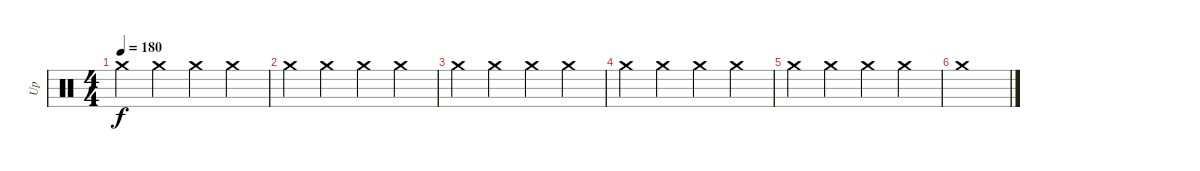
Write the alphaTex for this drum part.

\track ("Up" "Up") {instrument percussion}
\staff {score}
\articulation defaults
\ts (4 4)
\tempo 180
\clef neutral
\ks c "Crash medium (hit)".4{dy f} "Crash medium (hit)".4 "Crash medium (hit)".4 "Crash medium (hit)".4
|
"Crash medium (hit)".4 "Crash medium (hit)".4 "Crash medium (hit)".4 "Crash medium (hit)".4 |
"Crash medium (hit)".4 "Crash medium (hit)".4 "Crash medium (hit)".4 "Crash medium (hit)".4 |
"Crash medium (hit)".4 "Crash medium (hit)".4 "Crash medium (hit)".4 "Crash medium (hit)".4 |
"Crash medium (hit)".4 "Crash medium (hit)".4 "Crash medium (hit)".4 "Crash medium (hit)".4 |
"Crash medium (hit)".1
